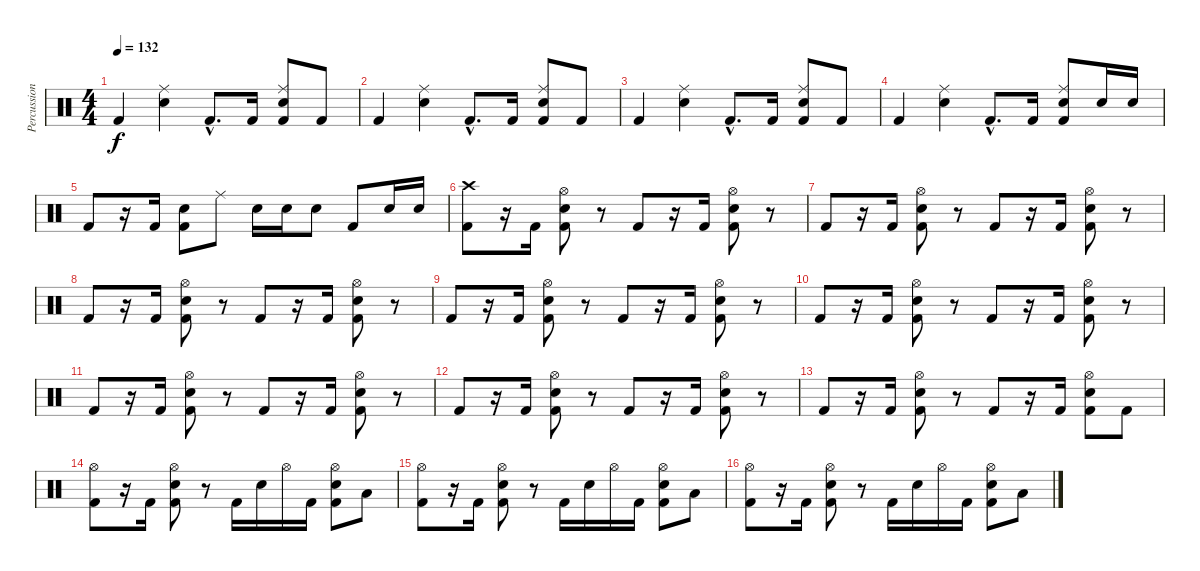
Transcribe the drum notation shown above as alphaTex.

\track ("Percussion" "Percussion") {instrument percussion}
\staff {score}
\articulation defaults
\ts (4 4)
\tempo 132
\clef neutral
\ks c "Kick (hit) 2".4{dy f}
("Ride (middle)" "Snare (hit) 2").4 "Kick (hit) 2"{hac}.8{d} "Kick (hit) 2".16 ("Ride (middle)" "Snare (hit) 2" "Kick (hit) 2").8 "Kick (hit) 2".8 |
"Kick (hit) 2".4 ("Ride (middle)" "Snare (hit) 2").4 "Kick (hit) 2"{hac}.8{d} "Kick (hit) 2".16 ("Ride (middle)" "Snare (hit) 2" "Kick (hit) 2").8 "Kick (hit) 2".8 |
"Kick (hit) 2".4 ("Ride (middle)" "Snare (hit) 2").4 "Kick (hit) 2"{hac}.8{d} "Kick (hit) 2".16 ("Ride (middle)" "Snare (hit) 2" "Kick (hit) 2").8 "Kick (hit) 2".8 |
"Kick (hit) 2".4 ("Ride (middle)" "Snare (hit) 2").4 "Kick (hit) 2"{hac}.8{d} "Kick (hit) 2".16 ("Ride (middle)" "Snare (hit) 2" "Kick (hit) 2").8 "Electric Snare (hit)".16 "Electric Snare (hit)".16 |
"Kick (hit) 2".8 r.16 "Kick (hit) 2".16 ("Snare (hit) 2" "Kick (hit) 2").8 "Ride (middle)".8 "Electric Snare (hit)".16 "Electric Snare (hit)".16 "Electric Snare (hit)".8 "Kick (hit) 2".8 "Snare (hit) 2".16 "Snare (hit) 2".16 |
("Crash high (hit)" "Kick (hit) 2").8 r.16 "Kick (hit) 2".16 ("Hi-Hat (open)" "Snare (hit) 2" "Kick (hit) 2").8 r.8 "Kick (hit) 2".8 r.16 "Kick (hit) 2".16 ("Hi-Hat (open)" "Snare (hit) 2" "Kick (hit) 2").8 r.8 |
"Kick (hit) 2".8 r.16 "Kick (hit) 2".16 ("Hi-Hat (open)" "Snare (hit) 2" "Kick (hit) 2").8 r.8 "Kick (hit) 2".8 r.16 "Kick (hit) 2".16 ("Hi-Hat (open)" "Snare (hit) 2" "Kick (hit) 2").8 r.8 |
"Kick (hit) 2".8 r.16 "Kick (hit) 2".16 ("Hi-Hat (open)" "Snare (hit) 2" "Kick (hit) 2").8 r.8 "Kick (hit) 2".8 r.16 "Kick (hit) 2".16 ("Hi-Hat (open)" "Snare (hit) 2" "Kick (hit) 2").8 r.8 |
"Kick (hit) 2".8 r.16 "Kick (hit) 2".16 ("Hi-Hat (open)" "Snare (hit) 2" "Kick (hit) 2").8 r.8 "Kick (hit) 2".8 r.16 "Kick (hit) 2".16 ("Hi-Hat (open)" "Snare (hit) 2" "Kick (hit) 2").8 r.8 |
"Kick (hit) 2".8 r.16 "Kick (hit) 2".16 ("Hi-Hat (open)" "Snare (hit) 2" "Kick (hit) 2").8 r.8 "Kick (hit) 2".8 r.16 "Kick (hit) 2".16 ("Hi-Hat (open)" "Snare (hit) 2" "Kick (hit) 2").8 r.8 |
"Kick (hit) 2".8 r.16 "Kick (hit) 2".16 ("Hi-Hat (open)" "Snare (hit) 2" "Kick (hit) 2").8 r.8 "Kick (hit) 2".8 r.16 "Kick (hit) 2".16 ("Hi-Hat (open)" "Snare (hit) 2" "Kick (hit) 2").8 r.8 |
"Kick (hit) 2".8 r.16 "Kick (hit) 2".16 ("Hi-Hat (open)" "Snare (hit) 2" "Kick (hit) 2").8 r.8 "Kick (hit) 2".8 r.16 "Kick (hit) 2".16 ("Hi-Hat (open)" "Snare (hit) 2" "Kick (hit) 2").8 r.8 |
"Kick (hit) 2".8 r.16 "Kick (hit) 2".16 ("Hi-Hat (open)" "Snare (hit) 2" "Kick (hit) 2").8 r.8 "Kick (hit) 2".8 r.16 "Kick (hit) 2".16 ("Hi-Hat (open)" "Snare (hit) 2" "Kick (hit) 2").8 "Kick (hit) 2".8 |
("Hi-Hat (open)" "Kick (hit) 2").8 r.16 "Kick (hit) 2".16 ("Hi-Hat (open)" "Snare (hit) 2" "Kick (hit) 2").8 r.8 "Kick (hit) 2".16 "Snare (hit) 2".16 "Hi-Hat (open)".16 "Kick (hit) 2".16 ("Hi-Hat (open)" "Snare (hit) 2" "Kick (hit) 2").8 "Low Floor Tom (hit)".8 |
("Hi-Hat (open)" "Kick (hit) 2").8 r.16 "Kick (hit) 2".16 ("Hi-Hat (open)" "Snare (hit) 2" "Kick (hit) 2").8 r.8 "Kick (hit) 2".16 "Snare (hit) 2".16 "Hi-Hat (open)".16 "Kick (hit) 2".16 ("Hi-Hat (open)" "Snare (hit) 2" "Kick (hit) 2").8 "Low Floor Tom (hit)".8 |
("Hi-Hat (open)" "Kick (hit) 2").8 r.16 "Kick (hit) 2".16 ("Hi-Hat (open)" "Snare (hit) 2" "Kick (hit) 2").8 r.8 "Kick (hit) 2".16 "Snare (hit) 2".16 "Hi-Hat (open)".16 "Kick (hit) 2".16 ("Hi-Hat (open)" "Snare (hit) 2" "Kick (hit) 2").8 "Low Floor Tom (hit)".8
